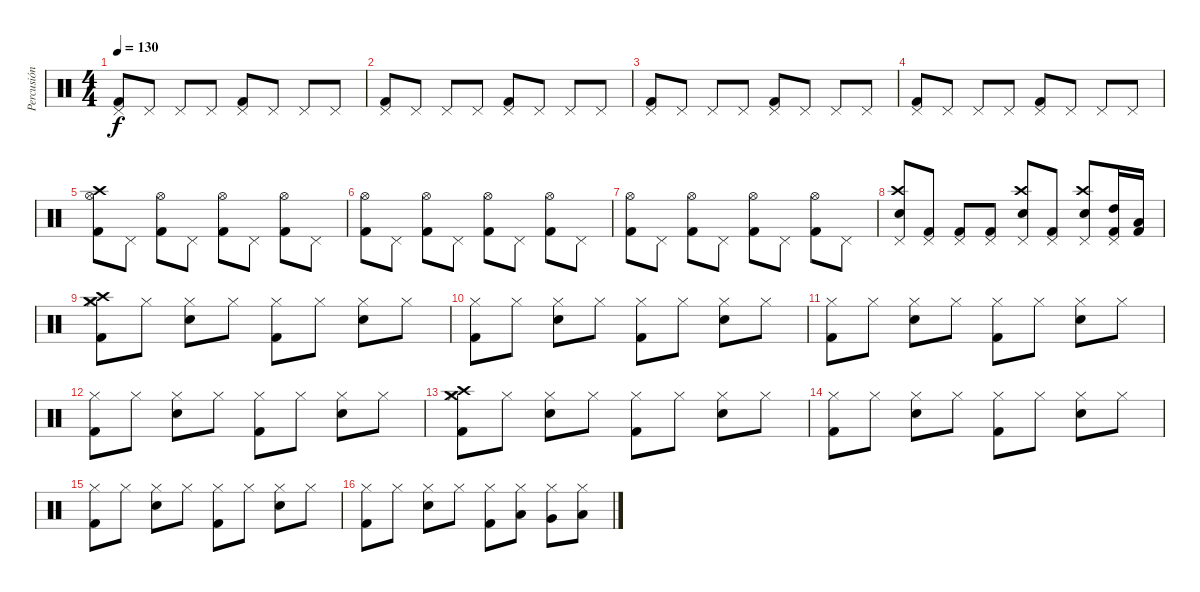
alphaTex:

\track ("Percusión" "Percusión") {instrument percussion}
\staff {score}
\articulation defaults
\ts (4 4)
\tempo 130
\clef neutral
\ks c
("Pedal Hi-Hat (hit)" "Kick (hit) 2").8{dy f} "Pedal Hi-Hat (hit)".8 "Pedal Hi-Hat (hit)".8 "Pedal Hi-Hat (hit)".8 ("Pedal Hi-Hat (hit)" "Kick (hit) 2").8 "Pedal Hi-Hat (hit)".8 "Pedal Hi-Hat (hit)".8 "Pedal Hi-Hat (hit)".8 |
("Pedal Hi-Hat (hit)" "Kick (hit) 2").8 "Pedal Hi-Hat (hit)".8 "Pedal Hi-Hat (hit)".8 "Pedal Hi-Hat (hit)".8 ("Pedal Hi-Hat (hit)" "Kick (hit) 2").8 "Pedal Hi-Hat (hit)".8 "Pedal Hi-Hat (hit)".8 "Pedal Hi-Hat (hit)".8 |
("Pedal Hi-Hat (hit)" "Kick (hit) 2").8 "Pedal Hi-Hat (hit)".8 "Pedal Hi-Hat (hit)".8 "Pedal Hi-Hat (hit)".8 ("Pedal Hi-Hat (hit)" "Kick (hit) 2").8 "Pedal Hi-Hat (hit)".8 "Pedal Hi-Hat (hit)".8 "Pedal Hi-Hat (hit)".8 |
("Pedal Hi-Hat (hit)" "Kick (hit) 2").8 "Pedal Hi-Hat (hit)".8 "Pedal Hi-Hat (hit)".8 "Pedal Hi-Hat (hit)".8 ("Pedal Hi-Hat (hit)" "Kick (hit) 2").8 "Pedal Hi-Hat (hit)".8 "Pedal Hi-Hat (hit)".8 "Pedal Hi-Hat (hit)".8 |
("Crash high (hit)" "Hi-Hat (open)" "Kick (hit) 2").8 "Pedal Hi-Hat (hit)".8 ("Hi-Hat (open)" "Kick (hit) 2").8 "Pedal Hi-Hat (hit)".8 ("Hi-Hat (open)" "Kick (hit) 2").8 "Pedal Hi-Hat (hit)".8 ("Hi-Hat (open)" "Kick (hit) 2").8 "Pedal Hi-Hat (hit)".8 |
("Hi-Hat (open)" "Kick (hit) 2").8 "Pedal Hi-Hat (hit)".8 ("Hi-Hat (open)" "Kick (hit) 2").8 "Pedal Hi-Hat (hit)".8 ("Hi-Hat (open)" "Kick (hit) 2").8 "Pedal Hi-Hat (hit)".8 ("Hi-Hat (open)" "Kick (hit) 2").8 "Pedal Hi-Hat (hit)".8 |
("Hi-Hat (open)" "Kick (hit) 2").8 "Pedal Hi-Hat (hit)".8 ("Hi-Hat (open)" "Kick (hit) 2").8 "Pedal Hi-Hat (hit)".8 ("Hi-Hat (open)" "Kick (hit) 2").8 "Pedal Hi-Hat (hit)".8 ("Hi-Hat (open)" "Kick (hit) 2").8 "Pedal Hi-Hat (hit)".8 |
("Crash high (hit)" "Pedal Hi-Hat (hit)" "Snare (hit) 2").8 ("Pedal Hi-Hat (hit)" "Kick (hit) 2").8 ("Pedal Hi-Hat (hit)" "Kick (hit) 2").8 ("Pedal Hi-Hat (hit)" "Kick (hit) 2").8 ("Crash high (hit)" "Pedal Hi-Hat (hit)" "Snare (hit) 2").8 ("Pedal Hi-Hat (hit)" "Kick (hit) 2").8 ("Crash high (hit)" "Pedal Hi-Hat (hit)" "Snare (hit) 2").8 ("Pedal Hi-Hat (hit)" "High Tom (hit)" "Kick (hit) 2").16 ("Low Tom (hit)" "Kick (hit) 2").16 |
("Crash medium (hit)" "Crash high (hit)" "Hi-Hat (closed)" "Kick (hit) 2").8 "Hi-Hat (closed)".8 ("Hi-Hat (closed)" "Snare (hit) 2").8 "Hi-Hat (closed)".8 ("Hi-Hat (closed)" "Kick (hit) 2").8 "Hi-Hat (closed)".8 ("Hi-Hat (closed)" "Snare (hit) 2").8 "Hi-Hat (closed)".8 |
("Hi-Hat (closed)" "Kick (hit) 2").8 "Hi-Hat (closed)".8 ("Hi-Hat (closed)" "Snare (hit) 2").8 "Hi-Hat (closed)".8 ("Hi-Hat (closed)" "Kick (hit) 2").8 "Hi-Hat (closed)".8 ("Hi-Hat (closed)" "Snare (hit) 2").8 "Hi-Hat (closed)".8 |
("Hi-Hat (closed)" "Kick (hit) 2").8 "Hi-Hat (closed)".8 ("Hi-Hat (closed)" "Snare (hit) 2").8 "Hi-Hat (closed)".8 ("Hi-Hat (closed)" "Kick (hit) 2").8 "Hi-Hat (closed)".8 ("Hi-Hat (closed)" "Snare (hit) 2").8 "Hi-Hat (closed)".8 |
("Hi-Hat (closed)" "Kick (hit) 2").8 "Hi-Hat (closed)".8 ("Hi-Hat (closed)" "Snare (hit) 2").8 "Hi-Hat (closed)".8 ("Hi-Hat (closed)" "Kick (hit) 2").8 "Hi-Hat (closed)".8 ("Hi-Hat (closed)" "Snare (hit) 2").8 "Hi-Hat (closed)".8 |
("Crash medium (hit)" "Crash high (hit)" "Hi-Hat (closed)" "Kick (hit) 2").8 "Hi-Hat (closed)".8 ("Hi-Hat (closed)" "Snare (hit) 2").8 "Hi-Hat (closed)".8 ("Hi-Hat (closed)" "Kick (hit) 2").8 "Hi-Hat (closed)".8 ("Hi-Hat (closed)" "Snare (hit) 2").8 "Hi-Hat (closed)".8 |
("Hi-Hat (closed)" "Kick (hit) 2").8 "Hi-Hat (closed)".8 ("Hi-Hat (closed)" "Snare (hit) 2").8 "Hi-Hat (closed)".8 ("Hi-Hat (closed)" "Kick (hit) 2").8 "Hi-Hat (closed)".8 ("Hi-Hat (closed)" "Snare (hit) 2").8 "Hi-Hat (closed)".8 |
("Hi-Hat (closed)" "Kick (hit) 2").8 "Hi-Hat (closed)".8 ("Hi-Hat (closed)" "Snare (hit) 2").8 "Hi-Hat (closed)".8 ("Hi-Hat (closed)" "Kick (hit) 2").8 "Hi-Hat (closed)".8 ("Hi-Hat (closed)" "Snare (hit) 2").8 "Hi-Hat (closed)".8 |
("Hi-Hat (closed)" "Kick (hit) 2").8 "Hi-Hat (closed)".8 ("Hi-Hat (closed)" "Snare (hit) 2").8 "Hi-Hat (closed)".8 ("Hi-Hat (closed)" "Kick (hit) 2").8 ("Hi-Hat (closed)" "Low Tom (hit)").8 ("Hi-Hat (closed)" "Very Low Tom (hit)").8 ("Hi-Hat (closed)" "Low Floor Tom (hit)").8
